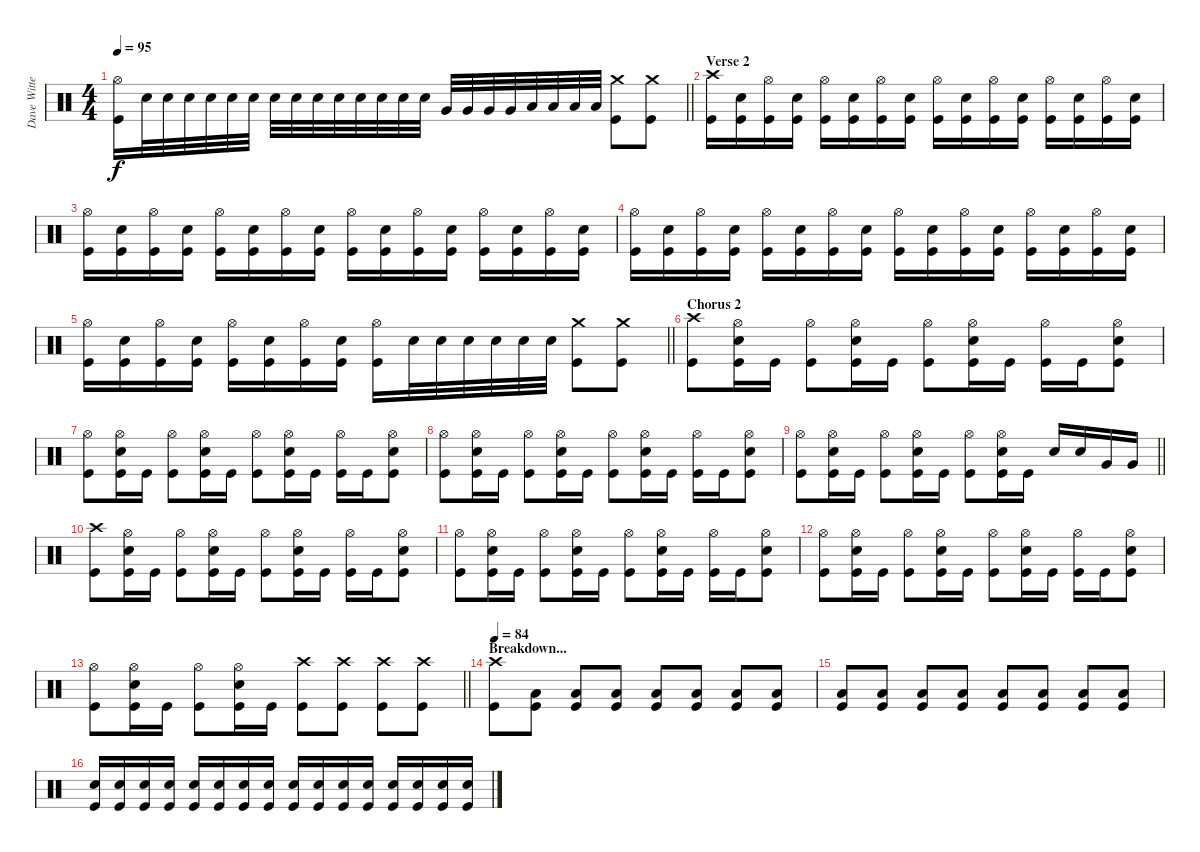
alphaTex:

\track ("Dave Witte" "Dave Witte") {instrument percussion}
\staff {score}
\articulation defaults
\ts (4 4)
\tempo 95
\clef neutral
\barLineRight lightlight
\ks c
("Kick (hit)" "Hi-Hat (open)").16{dy f} "Electric Snare (hit)".32 "Electric Snare (hit)".32 "Electric Snare (hit)".32 "Electric Snare (hit)".32 "Electric Snare (hit)".32 "Electric Snare (hit)".32 "Electric Snare (hit)".32 "Electric Snare (hit)".32 "Electric Snare (hit)".32 "Electric Snare (hit)".32 "Electric Snare (hit)".32 "Electric Snare (hit)".32 "Electric Snare (hit)".32 "Electric Snare (hit)".32 "Very Low Tom (hit)".32 "Very Low Tom (hit)".32 "Very Low Tom (hit)".32 "Very Low Tom (hit)".32 "Low Floor Tom (hit)".32 "Low Floor Tom (hit)".32 "Low Floor Tom (hit)".32 "Low Floor Tom (hit)".32 ("Kick (hit)" "Crash medium (hit)").8 ("Kick (hit)" "Crash medium (hit)").8 |
\section ("" "Verse 2")
("Kick (hit)" "Crash high (hit)").16 ("Kick (hit)" "Electric Snare (hit)").16 ("Kick (hit)" "Hi-Hat (open)").16 ("Kick (hit)" "Electric Snare (hit)").16 ("Kick (hit)" "Hi-Hat (open)").16 ("Kick (hit)" "Electric Snare (hit)").16 ("Kick (hit)" "Hi-Hat (open)").16 ("Kick (hit)" "Electric Snare (hit)").16 ("Kick (hit)" "Hi-Hat (open)").16 ("Kick (hit)" "Electric Snare (hit)").16 ("Kick (hit)" "Hi-Hat (open)").16 ("Kick (hit)" "Electric Snare (hit)").16 ("Kick (hit)" "Hi-Hat (open)").16 ("Kick (hit)" "Electric Snare (hit)").16 ("Kick (hit)" "Hi-Hat (open)").16 ("Kick (hit)" "Electric Snare (hit)").16 |
("Kick (hit)" "Hi-Hat (open)").16 ("Kick (hit)" "Electric Snare (hit)").16 ("Kick (hit)" "Hi-Hat (open)").16 ("Kick (hit)" "Electric Snare (hit)").16 ("Kick (hit)" "Hi-Hat (open)").16 ("Kick (hit)" "Electric Snare (hit)").16 ("Kick (hit)" "Hi-Hat (open)").16 ("Kick (hit)" "Electric Snare (hit)").16 ("Kick (hit)" "Hi-Hat (open)").16 ("Kick (hit)" "Electric Snare (hit)").16 ("Kick (hit)" "Hi-Hat (open)").16 ("Kick (hit)" "Electric Snare (hit)").16 ("Kick (hit)" "Hi-Hat (open)").16 ("Kick (hit)" "Electric Snare (hit)").16 ("Kick (hit)" "Hi-Hat (open)").16 ("Kick (hit)" "Electric Snare (hit)").16 |
("Kick (hit)" "Hi-Hat (open)").16 ("Kick (hit)" "Electric Snare (hit)").16 ("Kick (hit)" "Hi-Hat (open)").16 ("Kick (hit)" "Electric Snare (hit)").16 ("Kick (hit)" "Hi-Hat (open)").16 ("Kick (hit)" "Electric Snare (hit)").16 ("Kick (hit)" "Hi-Hat (open)").16 ("Kick (hit)" "Electric Snare (hit)").16 ("Kick (hit)" "Hi-Hat (open)").16 ("Kick (hit)" "Electric Snare (hit)").16 ("Kick (hit)" "Hi-Hat (open)").16 ("Kick (hit)" "Electric Snare (hit)").16 ("Kick (hit)" "Hi-Hat (open)").16 ("Kick (hit)" "Electric Snare (hit)").16 ("Kick (hit)" "Hi-Hat (open)").16 ("Kick (hit)" "Electric Snare (hit)").16 |
\barLineRight lightlight
("Kick (hit)" "Hi-Hat (open)").16 ("Kick (hit)" "Electric Snare (hit)").16 ("Kick (hit)" "Hi-Hat (open)").16 ("Kick (hit)" "Electric Snare (hit)").16 ("Kick (hit)" "Hi-Hat (open)").16 ("Kick (hit)" "Electric Snare (hit)").16 ("Kick (hit)" "Hi-Hat (open)").16 ("Kick (hit)" "Electric Snare (hit)").16 ("Kick (hit)" "Hi-Hat (open)").16 "Electric Snare (hit)".32 "Electric Snare (hit)".32 "Electric Snare (hit)".32 "Electric Snare (hit)".32 "Electric Snare (hit)".32 "Electric Snare (hit)".32 ("Kick (hit)" "Crash medium (hit)").8 ("Kick (hit)" "Crash medium (hit)").8 |
\section ("" "Chorus 2")
("Kick (hit)" "Crash high (hit)").8 ("Kick (hit)" "Electric Snare (hit)" "Hi-Hat (open)").16 "Kick (hit)".16 ("Kick (hit)" "Hi-Hat (open)").8 ("Kick (hit)" "Electric Snare (hit)" "Hi-Hat (open)").16 "Kick (hit)".16 ("Kick (hit)" "Hi-Hat (open)").8 ("Kick (hit)" "Electric Snare (hit)" "Hi-Hat (open)").16 "Kick (hit)".16 ("Kick (hit)" "Hi-Hat (open)").16 "Kick (hit)".16 ("Kick (hit)" "Electric Snare (hit)" "Hi-Hat (open)").8 |
("Kick (hit)" "Hi-Hat (open)").8 ("Kick (hit)" "Electric Snare (hit)" "Hi-Hat (open)").16 "Kick (hit)".16 ("Kick (hit)" "Hi-Hat (open)").8 ("Kick (hit)" "Electric Snare (hit)" "Hi-Hat (open)").16 "Kick (hit)".16 ("Kick (hit)" "Hi-Hat (open)").8 ("Kick (hit)" "Electric Snare (hit)" "Hi-Hat (open)").16 "Kick (hit)".16 ("Kick (hit)" "Hi-Hat (open)").16 "Kick (hit)".16 ("Kick (hit)" "Electric Snare (hit)" "Hi-Hat (open)").8 |
("Kick (hit)" "Hi-Hat (open)").8 ("Kick (hit)" "Electric Snare (hit)" "Hi-Hat (open)").16 "Kick (hit)".16 ("Kick (hit)" "Hi-Hat (open)").8 ("Kick (hit)" "Electric Snare (hit)" "Hi-Hat (open)").16 "Kick (hit)".16 ("Kick (hit)" "Hi-Hat (open)").8 ("Kick (hit)" "Electric Snare (hit)" "Hi-Hat (open)").16 "Kick (hit)".16 ("Kick (hit)" "Hi-Hat (open)").16 "Kick (hit)".16 ("Kick (hit)" "Electric Snare (hit)" "Hi-Hat (open)").8 |
\barLineRight lightlight
("Kick (hit)" "Hi-Hat (open)").8 ("Kick (hit)" "Electric Snare (hit)" "Hi-Hat (open)").16 "Kick (hit)".16 ("Kick (hit)" "Hi-Hat (open)").8 ("Kick (hit)" "Electric Snare (hit)" "Hi-Hat (open)").16 "Kick (hit)".16 ("Kick (hit)" "Hi-Hat (open)").8 ("Kick (hit)" "Electric Snare (hit)" "Hi-Hat (open)").16 "Kick (hit)".16 "Electric Snare (hit)".16 "Electric Snare (hit)".16 "Very Low Tom (hit)".16 "Very Low Tom (hit)".16 |
("Kick (hit)" "Crash high (hit)").8 ("Kick (hit)" "Electric Snare (hit)" "Hi-Hat (open)").16 "Kick (hit)".16 ("Kick (hit)" "Hi-Hat (open)").8 ("Kick (hit)" "Electric Snare (hit)" "Hi-Hat (open)").16 "Kick (hit)".16 ("Kick (hit)" "Hi-Hat (open)").8 ("Kick (hit)" "Electric Snare (hit)" "Hi-Hat (open)").16 "Kick (hit)".16 ("Kick (hit)" "Hi-Hat (open)").16 "Kick (hit)".16 ("Kick (hit)" "Electric Snare (hit)" "Hi-Hat (open)").8 |
("Kick (hit)" "Hi-Hat (open)").8 ("Kick (hit)" "Electric Snare (hit)" "Hi-Hat (open)").16 "Kick (hit)".16 ("Kick (hit)" "Hi-Hat (open)").8 ("Kick (hit)" "Electric Snare (hit)" "Hi-Hat (open)").16 "Kick (hit)".16 ("Kick (hit)" "Hi-Hat (open)").8 ("Kick (hit)" "Electric Snare (hit)" "Hi-Hat (open)").16 "Kick (hit)".16 ("Kick (hit)" "Hi-Hat (open)").16 "Kick (hit)".16 ("Kick (hit)" "Electric Snare (hit)" "Hi-Hat (open)").8 |
("Kick (hit)" "Hi-Hat (open)").8 ("Kick (hit)" "Electric Snare (hit)" "Hi-Hat (open)").16 "Kick (hit)".16 ("Kick (hit)" "Hi-Hat (open)").8 ("Kick (hit)" "Electric Snare (hit)" "Hi-Hat (open)").16 "Kick (hit)".16 ("Kick (hit)" "Hi-Hat (open)").8 ("Kick (hit)" "Electric Snare (hit)" "Hi-Hat (open)").16 "Kick (hit)".16 ("Kick (hit)" "Hi-Hat (open)").16 "Kick (hit)".16 ("Kick (hit)" "Electric Snare (hit)" "Hi-Hat (open)").8 |
\barLineRight lightlight
("Kick (hit)" "Hi-Hat (open)").8 ("Kick (hit)" "Electric Snare (hit)" "Hi-Hat (open)").16 "Kick (hit)".16 ("Kick (hit)" "Hi-Hat (open)").8 ("Kick (hit)" "Electric Snare (hit)" "Hi-Hat (open)").16 "Kick (hit)".16 ("Kick (hit)" "Crash high (hit)").8 ("Kick (hit)" "Crash high (hit)").8 ("Kick (hit)" "Crash high (hit)").8 ("Kick (hit)" "Crash high (hit)").8 |
\section ("" "Breakdown...")
\tempo 84
("Kick (hit)" "Crash high (hit)").8 ("Kick (hit)" "Low Floor Tom (hit)").8 ("Kick (hit)" "Low Floor Tom (hit)").8 ("Kick (hit)" "Low Floor Tom (hit)").8 ("Kick (hit)" "Low Floor Tom (hit)").8 ("Kick (hit)" "Low Floor Tom (hit)").8 ("Kick (hit)" "Low Floor Tom (hit)").8 ("Kick (hit)" "Low Floor Tom (hit)").8 |
("Kick (hit)" "Low Floor Tom (hit)").8 ("Kick (hit)" "Low Floor Tom (hit)").8 ("Kick (hit)" "Low Floor Tom (hit)").8 ("Kick (hit)" "Low Floor Tom (hit)").8 ("Kick (hit)" "Low Floor Tom (hit)").8 ("Kick (hit)" "Low Floor Tom (hit)").8 ("Kick (hit)" "Low Floor Tom (hit)").8 ("Kick (hit)" "Low Floor Tom (hit)").8 |
("Kick (hit)" "Electric Snare (hit)").16 ("Kick (hit)" "Electric Snare (hit)").16 ("Kick (hit)" "Electric Snare (hit)").16 ("Kick (hit)" "Electric Snare (hit)").16 ("Kick (hit)" "Electric Snare (hit)").16 ("Kick (hit)" "Electric Snare (hit)").16 ("Kick (hit)" "Electric Snare (hit)").16 ("Kick (hit)" "Electric Snare (hit)").16 ("Kick (hit)" "Electric Snare (hit)").16 ("Kick (hit)" "Electric Snare (hit)").16 ("Kick (hit)" "Electric Snare (hit)").16 ("Kick (hit)" "Electric Snare (hit)").16 ("Kick (hit)" "Electric Snare (hit)").16 ("Kick (hit)" "Electric Snare (hit)").16 ("Kick (hit)" "Electric Snare (hit)").16 ("Kick (hit)" "Electric Snare (hit)").16
